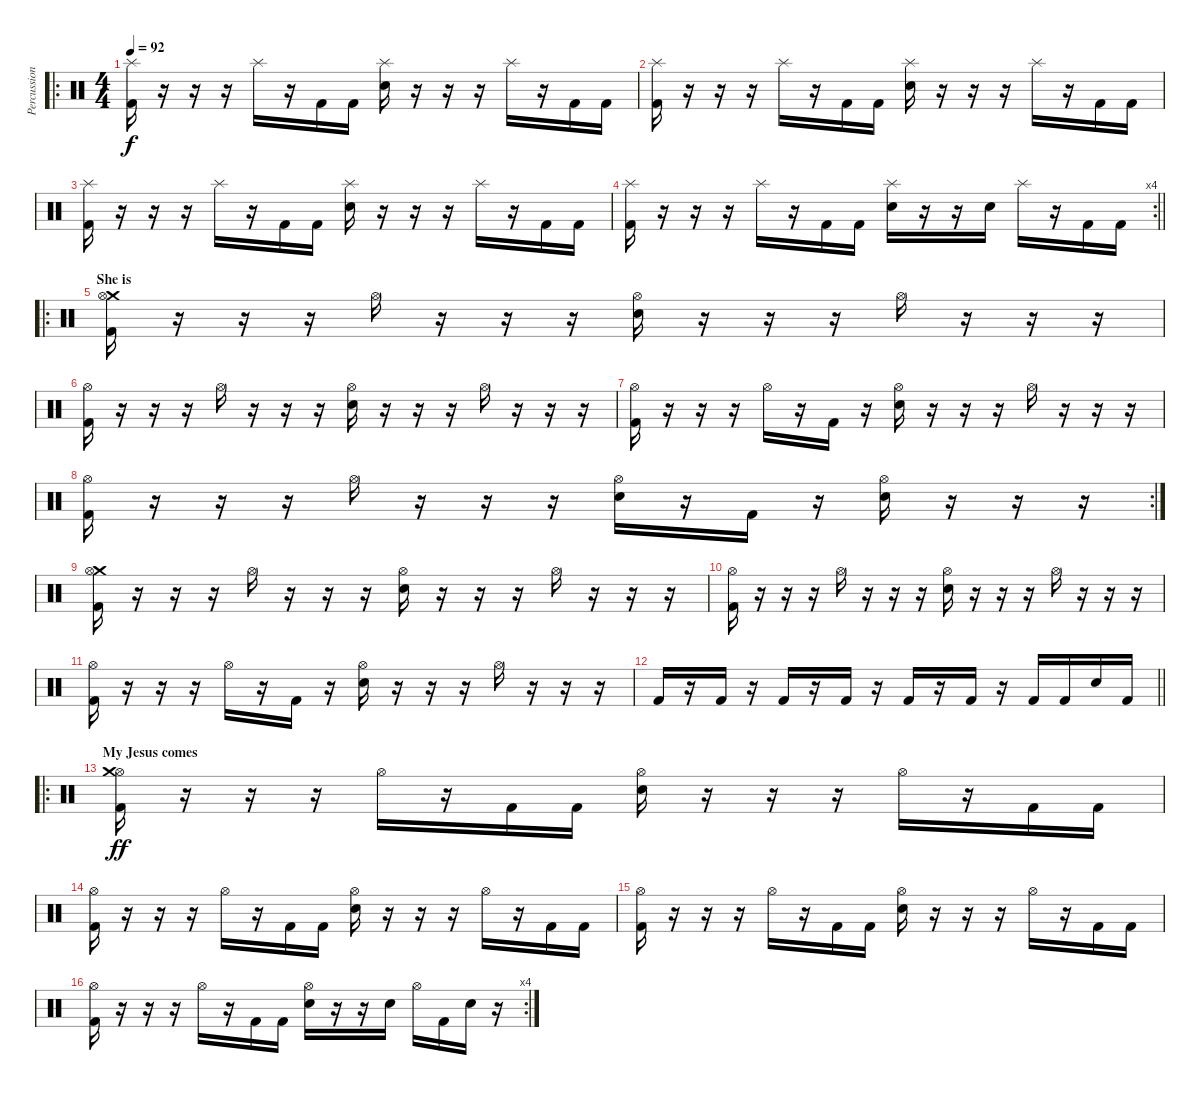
\track ("Percussions" "Percussion") {instrument percussion}
\staff {score}
\articulation defaults
\ro
\ts (4 4)
\tempo 92
\clef neutral
\ks c
("Kick (hit) 2" "Splash (hit)").16{dy f} r.16 r.16 r.16 "Splash (hit)".16 r.16 "Kick (hit) 2".16 "Kick (hit) 2".16 ("Electric Snare (hit)" "Splash (hit)").16 r.16 r.16 r.16 "Splash (hit)".16 r.16 "Kick (hit) 2".16 "Kick (hit) 2".16 |
("Kick (hit) 2" "Splash (hit)").16 r.16 r.16 r.16 "Splash (hit)".16 r.16 "Kick (hit) 2".16 "Kick (hit) 2".16 ("Electric Snare (hit)" "Splash (hit)").16 r.16 r.16 r.16 "Splash (hit)".16 r.16 "Kick (hit) 2".16 "Kick (hit) 2".16 |
("Kick (hit) 2" "Splash (hit)").16 r.16 r.16 r.16 "Splash (hit)".16 r.16 "Kick (hit) 2".16 "Kick (hit) 2".16 ("Electric Snare (hit)" "Splash (hit)").16 r.16 r.16 r.16 "Splash (hit)".16 r.16 "Kick (hit) 2".16 "Kick (hit) 2".16 |
\rc 4
\barLineRight lightlight
("Kick (hit) 2" "Splash (hit)").16 r.16 r.16 r.16 "Splash (hit)".16 r.16 "Kick (hit) 2".16 "Kick (hit) 2".16 ("Electric Snare (hit)" "Splash (hit)").16 r.16 r.16 "Electric Snare (hit)".16 "Splash (hit)".16 r.16 "Kick (hit) 2".16 "Kick (hit) 2".16 |
\ro
\section ("" "She is")
("Kick (hit) 2" "Crash medium (hit)" "Hi-Hat (open)").16 r.16 r.16 r.16 "Hi-Hat (open)".16 r.16 r.16 r.16 ("Electric Snare (hit)" "Hi-Hat (open)").16 r.16 r.16 r.16 "Hi-Hat (open)".16 r.16 r.16 r.16 |
("Kick (hit) 2" "Hi-Hat (open)").16 r.16 r.16 r.16 "Hi-Hat (open)".16 r.16 r.16 r.16 ("Electric Snare (hit)" "Hi-Hat (open)").16 r.16 r.16 r.16 "Hi-Hat (open)".16 r.16 r.16 r.16 |
("Kick (hit) 2" "Hi-Hat (open)").16 r.16 r.16 r.16 "Hi-Hat (open)".16 r.16 "Kick (hit) 2".16 r.16 ("Electric Snare (hit)" "Hi-Hat (open)").16 r.16 r.16 r.16 "Hi-Hat (open)".16 r.16 r.16 r.16 |
\rc 2
("Kick (hit) 2" "Hi-Hat (open)").16 r.16 r.16 r.16 "Hi-Hat (open)".16 r.16 r.16 r.16 ("Electric Snare (hit)" "Hi-Hat (open)").16 r.16 "Kick (hit) 2".16 r.16 ("Electric Snare (hit)" "Hi-Hat (open)").16 r.16 r.16 r.16 |
("Kick (hit) 2" "Crash medium (hit)" "Hi-Hat (open)").16 r.16 r.16 r.16 "Hi-Hat (open)".16 r.16 r.16 r.16 ("Electric Snare (hit)" "Hi-Hat (open)").16 r.16 r.16 r.16 "Hi-Hat (open)".16 r.16 r.16 r.16 |
("Kick (hit) 2" "Hi-Hat (open)").16 r.16 r.16 r.16 "Hi-Hat (open)".16 r.16 r.16 r.16 ("Electric Snare (hit)" "Hi-Hat (open)").16 r.16 r.16 r.16 "Hi-Hat (open)".16 r.16 r.16 r.16 |
("Kick (hit) 2" "Hi-Hat (open)").16 r.16 r.16 r.16 "Hi-Hat (open)".16 r.16 "Kick (hit) 2".16 r.16 ("Electric Snare (hit)" "Hi-Hat (open)").16 r.16 r.16 r.16 "Hi-Hat (open)".16 r.16 r.16 r.16 |
\barLineRight lightlight "Kick (hit) 2".16
r.16 "Kick (hit) 2".16 r.16 "Kick (hit) 2".16 r.16 "Kick (hit) 2".16 r.16 "Kick (hit) 2".16 r.16 "Kick (hit) 2".16 r.16 "Kick (hit) 2".16 "Kick (hit) 2".16 "Electric Snare (hit)".16 "Kick (hit) 2".16 |
\ro
\section ("" "My Jesus comes ")
("Kick (hit) 2" "Hi-Hat (open)" "Crash medium (hit)").16{dy ff} r.16 r.16 r.16 "Hi-Hat (open)".16 r.16 "Kick (hit) 2".16 "Kick (hit) 2".16 ("Electric Snare (hit)" "Hi-Hat (open)").16 r.16 r.16 r.16 "Hi-Hat (open)".16 r.16 "Kick (hit) 2".16 "Kick (hit) 2".16 |
("Kick (hit) 2" "Hi-Hat (open)").16 r.16 r.16 r.16 "Hi-Hat (open)".16 r.16 "Kick (hit) 2".16 "Kick (hit) 2".16 ("Electric Snare (hit)" "Hi-Hat (open)").16 r.16 r.16 r.16 "Hi-Hat (open)".16 r.16 "Kick (hit) 2".16 "Kick (hit) 2".16 |
("Kick (hit) 2" "Hi-Hat (open)").16 r.16 r.16 r.16 "Hi-Hat (open)".16 r.16 "Kick (hit) 2".16 "Kick (hit) 2".16 ("Electric Snare (hit)" "Hi-Hat (open)").16 r.16 r.16 r.16 "Hi-Hat (open)".16 r.16 "Kick (hit) 2".16 "Kick (hit) 2".16 |
\rc 4
("Kick (hit) 2" "Hi-Hat (open)").16 r.16 r.16 r.16 "Hi-Hat (open)".16 r.16 "Kick (hit) 2".16 "Kick (hit) 2".16 ("Electric Snare (hit)" "Hi-Hat (open)").16 r.16 r.16 "Electric Snare (hit)".16 "Hi-Hat (open)".16 "Kick (hit) 2".16 "Electric Snare (hit)".16 r.16
